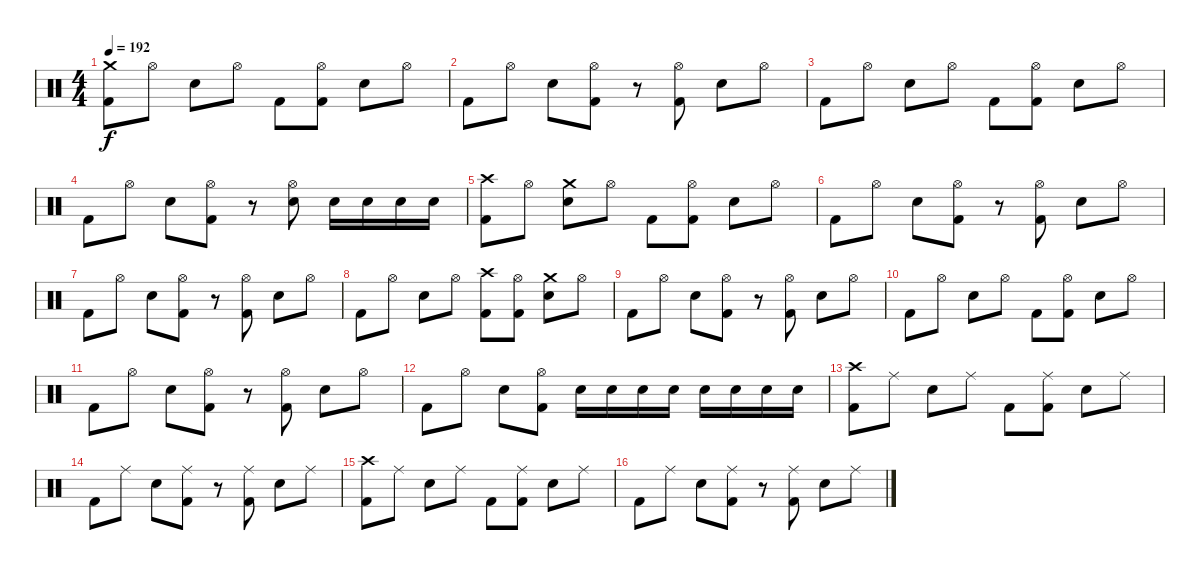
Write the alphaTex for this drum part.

\track "" {instrument percussion}
\staff {score}
\articulation defaults
\ts (4 4)
\tempo 192
\clef neutral
\ks c
("Crash medium (hit)" "Kick (hit) 2").8{dy f} "Hi-Hat (open)".8 "Snare (hit) 2".8 "Hi-Hat (open)".8 "Kick (hit) 2".8 ("Hi-Hat (open)" "Kick (hit) 2").8 "Snare (hit) 2".8 "Hi-Hat (open)".8 |
"Kick (hit) 2".8 "Hi-Hat (open)".8 "Snare (hit) 2".8 ("Hi-Hat (open)" "Kick (hit) 2").8 r.8 ("Hi-Hat (open)" "Kick (hit) 2").8 "Snare (hit) 2".8 "Hi-Hat (open)".8 |
"Kick (hit) 2".8 "Hi-Hat (open)".8 "Snare (hit) 2".8 "Hi-Hat (open)".8 "Kick (hit) 2".8 ("Hi-Hat (open)" "Kick (hit) 2").8 "Snare (hit) 2".8 "Hi-Hat (open)".8 |
"Kick (hit) 2".8 "Hi-Hat (open)".8 "Snare (hit) 2".8 ("Hi-Hat (open)" "Kick (hit) 2").8 r.8 ("Hi-Hat (open)" "Snare (hit) 2").8 "Snare (hit) 2".16 "Snare (hit) 2".16 "Snare (hit) 2".16 "Snare (hit) 2".16 |
("Crash high (hit)" "Kick (hit) 2").8 "Hi-Hat (open)".8 ("Crash medium (hit)" "Snare (hit) 2").8 "Hi-Hat (open)".8 "Kick (hit) 2".8 ("Hi-Hat (open)" "Kick (hit) 2").8 "Snare (hit) 2".8 "Hi-Hat (open)".8 |
"Kick (hit) 2".8 "Hi-Hat (open)".8 "Snare (hit) 2".8 ("Hi-Hat (open)" "Kick (hit) 2").8 r.8 ("Hi-Hat (open)" "Kick (hit) 2").8 "Snare (hit) 2".8 "Hi-Hat (open)".8 |
"Kick (hit) 2".8 "Hi-Hat (open)".8 "Snare (hit) 2".8 ("Hi-Hat (open)" "Kick (hit) 2").8 r.8 ("Hi-Hat (open)" "Kick (hit) 2").8 "Snare (hit) 2".8 "Hi-Hat (open)".8 |
"Kick (hit) 2".8 "Hi-Hat (open)".8 "Snare (hit) 2".8 "Hi-Hat (open)".8 ("Crash high (hit)" "Kick (hit) 2").8 ("Hi-Hat (open)" "Kick (hit) 2").8 ("Crash medium (hit)" "Snare (hit) 2").8 "Hi-Hat (open)".8 |
"Kick (hit) 2".8 "Hi-Hat (open)".8 "Snare (hit) 2".8 ("Hi-Hat (open)" "Kick (hit) 2").8 r.8 ("Hi-Hat (open)" "Kick (hit) 2").8 "Snare (hit) 2".8 "Hi-Hat (open)".8 |
"Kick (hit) 2".8 "Hi-Hat (open)".8 "Snare (hit) 2".8 "Hi-Hat (open)".8 "Kick (hit) 2".8 ("Hi-Hat (open)" "Kick (hit) 2").8 "Snare (hit) 2".8 "Hi-Hat (open)".8 |
"Kick (hit) 2".8 "Hi-Hat (open)".8 "Snare (hit) 2".8 ("Hi-Hat (open)" "Kick (hit) 2").8 r.8 ("Hi-Hat (open)" "Kick (hit) 2").8 "Snare (hit) 2".8 "Hi-Hat (open)".8 |
"Kick (hit) 2".8 "Hi-Hat (open)".8 "Snare (hit) 2".8 ("Hi-Hat (open)" "Kick (hit) 2").8 "Electric Snare (hit)".16 "Electric Snare (hit)".16 "Electric Snare (hit)".16 "Electric Snare (hit)".16 "Snare (hit) 2".16 "Snare (hit) 2".16 "Snare (hit) 2".16 "Snare (hit) 2".16 |
("Crash high (hit)" "Kick (hit) 2").8 "Ride (middle)".8 "Snare (hit) 2".8 "Ride (middle)".8 "Kick (hit) 2".8 ("Ride (middle)" "Kick (hit) 2").8 "Snare (hit) 2".8 "Ride (middle)".8 |
"Kick (hit) 2".8 "Ride (middle)".8 "Snare (hit) 2".8 ("Ride (middle)" "Kick (hit) 2").8 r.8 ("Ride (middle)" "Kick (hit) 2").8 "Snare (hit) 2".8 "Ride (middle)".8 |
("Crash high (hit)" "Kick (hit) 2").8 "Ride (middle)".8 "Snare (hit) 2".8 "Ride (middle)".8 "Kick (hit) 2".8 ("Ride (middle)" "Kick (hit) 2").8 "Snare (hit) 2".8 "Ride (middle)".8 |
"Kick (hit) 2".8 "Ride (middle)".8 "Snare (hit) 2".8 ("Ride (middle)" "Kick (hit) 2").8 r.8 ("Ride (middle)" "Kick (hit) 2").8 "Snare (hit) 2".8 "Ride (middle)".8
